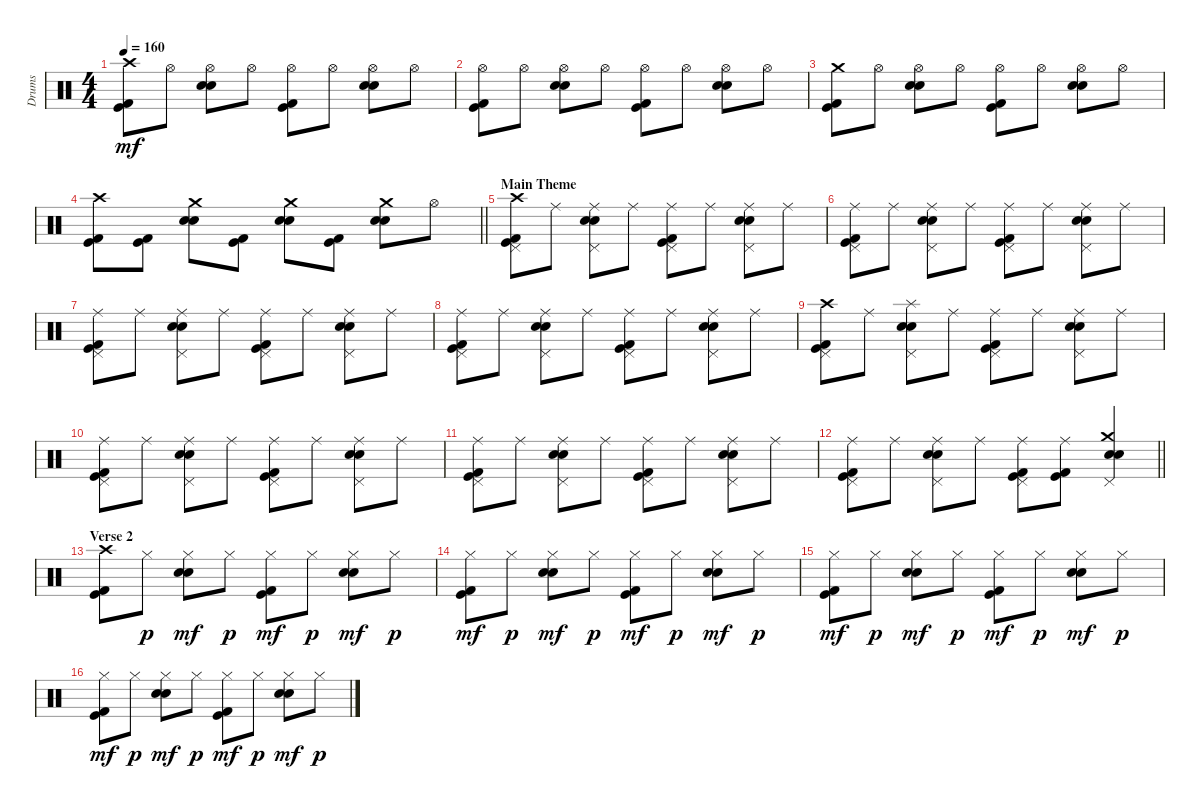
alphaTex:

\track ("Drums" "Drums") {instrument percussion}
\staff {score}
\articulation defaults
\ts (4 4)
\tempo 160
\clef neutral
\ks c
("Crash high (hit)" "Kick (hit) 2" "Kick (hit)").8{dy mf} "Hi-Hat (open)".8 ("Hi-Hat (open)" "Snare (hit) 2" "Electric Snare (hit)").8 "Hi-Hat (open)".8 ("Hi-Hat (open)" "Kick (hit) 2" "Kick (hit)").8 "Hi-Hat (open)".8 ("Hi-Hat (open)" "Snare (hit) 2" "Electric Snare (hit)").8 "Hi-Hat (open)".8 |
("Hi-Hat (open)" "Kick (hit) 2" "Kick (hit)").8 "Hi-Hat (open)".8 ("Hi-Hat (open)" "Snare (hit) 2" "Electric Snare (hit)").8 "Hi-Hat (open)".8 ("Hi-Hat (open)" "Kick (hit) 2" "Kick (hit)").8 "Hi-Hat (open)".8 ("Hi-Hat (open)" "Snare (hit) 2" "Electric Snare (hit)").8 "Hi-Hat (open)".8 |
("Crash medium (hit)" "Kick (hit) 2" "Kick (hit)").8 "Hi-Hat (open)".8 ("Hi-Hat (open)" "Snare (hit) 2" "Electric Snare (hit)").8 "Hi-Hat (open)".8 ("Hi-Hat (open)" "Kick (hit) 2" "Kick (hit)").8 "Hi-Hat (open)".8 ("Hi-Hat (open)" "Snare (hit) 2" "Electric Snare (hit)").8 "Hi-Hat (open)".8 |
\barLineRight lightlight
("Crash high (hit)" "Kick (hit) 2" "Kick (hit)").8 ("Kick (hit) 2" "Kick (hit)").8 ("Crash medium (hit)" "Snare (hit) 2" "Electric Snare (hit)").8 ("Kick (hit) 2" "Kick (hit)").8 ("Crash medium (hit)" "Snare (hit) 2" "Electric Snare (hit)").8 ("Kick (hit) 2" "Kick (hit)").8 ("Crash medium (hit)" "Snare (hit) 2" "Electric Snare (hit)").8 "Hi-Hat (open)".8 |
\section ("" "Main Theme")
("Crash high (hit)" "Pedal Hi-Hat (hit)" "Kick (hit) 2" "Kick (hit)").8 "Ride (middle)".8 ("Ride (middle)" "Pedal Hi-Hat (hit)" "Snare (hit) 2" "Electric Snare (hit)").8 "Ride (middle)".8 ("Ride (middle)" "Pedal Hi-Hat (hit)" "Kick (hit) 2" "Kick (hit)").8 "Ride (middle)".8 ("Ride (middle)" "Pedal Hi-Hat (hit)" "Snare (hit) 2" "Electric Snare (hit)").8 "Ride (middle)".8 |
("Ride (middle)" "Pedal Hi-Hat (hit)" "Kick (hit) 2" "Kick (hit)").8 "Ride (middle)".8 ("Ride (middle)" "Pedal Hi-Hat (hit)" "Snare (hit) 2" "Electric Snare (hit)").8 "Ride (middle)".8 ("Ride (middle)" "Pedal Hi-Hat (hit)" "Kick (hit) 2" "Kick (hit)").8 "Ride (middle)".8 ("Ride (middle)" "Pedal Hi-Hat (hit)" "Snare (hit) 2" "Electric Snare (hit)").8 "Ride (middle)".8 |
("Ride (middle)" "Pedal Hi-Hat (hit)" "Kick (hit) 2" "Kick (hit)").8 "Ride (middle)".8 ("Ride (middle)" "Pedal Hi-Hat (hit)" "Snare (hit) 2" "Electric Snare (hit)").8 "Ride (middle)".8 ("Ride (middle)" "Pedal Hi-Hat (hit)" "Kick (hit) 2" "Kick (hit)").8 "Ride (middle)".8 ("Ride (middle)" "Pedal Hi-Hat (hit)" "Snare (hit) 2" "Electric Snare (hit)").8 "Ride (middle)".8 |
("Ride (middle)" "Pedal Hi-Hat (hit)" "Kick (hit) 2" "Kick (hit)").8 "Ride (middle)".8 ("Ride (middle)" "Pedal Hi-Hat (hit)" "Snare (hit) 2" "Electric Snare (hit)").8 "Ride (middle)".8 ("Ride (middle)" "Pedal Hi-Hat (hit)" "Kick (hit) 2" "Kick (hit)").8 "Ride (middle)".8 ("Ride (middle)" "Pedal Hi-Hat (hit)" "Snare (hit) 2" "Electric Snare (hit)").8 "Ride (middle)".8 |
("Crash high (hit)" "Pedal Hi-Hat (hit)" "Kick (hit) 2" "Kick (hit)").8 "Ride (middle)".8 ("Splash (hit)" "Pedal Hi-Hat (hit)" "Snare (hit) 2" "Electric Snare (hit)").8 "Ride (middle)".8 ("Ride (middle)" "Pedal Hi-Hat (hit)" "Kick (hit) 2" "Kick (hit)").8 "Ride (middle)".8 ("Ride (middle)" "Pedal Hi-Hat (hit)" "Snare (hit) 2" "Electric Snare (hit)").8 "Ride (middle)".8 |
("Ride (middle)" "Pedal Hi-Hat (hit)" "Kick (hit) 2" "Kick (hit)").8 "Ride (middle)".8 ("Ride (middle)" "Pedal Hi-Hat (hit)" "Snare (hit) 2" "Electric Snare (hit)").8 "Ride (middle)".8 ("Ride (middle)" "Pedal Hi-Hat (hit)" "Kick (hit) 2" "Kick (hit)").8 "Ride (middle)".8 ("Ride (middle)" "Pedal Hi-Hat (hit)" "Snare (hit) 2" "Electric Snare (hit)").8 "Ride (middle)".8 |
("Ride (middle)" "Pedal Hi-Hat (hit)" "Kick (hit) 2" "Kick (hit)").8 "Ride (middle)".8 ("Ride (middle)" "Pedal Hi-Hat (hit)" "Snare (hit) 2" "Electric Snare (hit)").8 "Ride (middle)".8 ("Ride (middle)" "Pedal Hi-Hat (hit)" "Kick (hit) 2" "Kick (hit)").8 "Ride (middle)".8 ("Ride (middle)" "Pedal Hi-Hat (hit)" "Snare (hit) 2" "Electric Snare (hit)").8 "Ride (middle)".8 |
\barLineRight lightlight
("Ride (middle)" "Pedal Hi-Hat (hit)" "Kick (hit) 2" "Kick (hit)").8 "Ride (middle)".8 ("Ride (middle)" "Pedal Hi-Hat (hit)" "Snare (hit) 2" "Electric Snare (hit)").8 "Ride (middle)".8 ("Ride (middle)" "Pedal Hi-Hat (hit)" "Kick (hit) 2" "Kick (hit)").8 ("Ride (middle)" "Kick (hit) 2" "Kick (hit)").8 ("Crash medium (hit)" "Pedal Hi-Hat (hit)" "Snare (hit) 2" "Electric Snare (hit)").4 |
\section ("" "Verse 2")
("Crash high (hit)" "Kick (hit) 2" "Kick (hit)").8 "Hi-Hat (closed)".8{dy p} ("Hi-Hat (closed)" "Snare (hit) 2" "Electric Snare (hit)").8{dy mf} "Hi-Hat (closed)".8{dy p} ("Hi-Hat (closed)" "Kick (hit) 2" "Kick (hit)").8{dy mf} "Hi-Hat (closed)".8{dy p} ("Hi-Hat (closed)" "Snare (hit) 2" "Electric Snare (hit)").8{dy mf} "Hi-Hat (closed)".8{dy p} |
("Hi-Hat (closed)" "Kick (hit) 2" "Kick (hit)").8{dy mf} "Hi-Hat (closed)".8{dy p} ("Hi-Hat (closed)" "Snare (hit) 2" "Electric Snare (hit)").8{dy mf} "Hi-Hat (closed)".8{dy p} ("Hi-Hat (closed)" "Kick (hit) 2" "Kick (hit)").8{dy mf} "Hi-Hat (closed)".8{dy p} ("Hi-Hat (closed)" "Snare (hit) 2" "Electric Snare (hit)").8{dy mf} "Hi-Hat (closed)".8{dy p} |
("Hi-Hat (closed)" "Kick (hit) 2" "Kick (hit)").8{dy mf} "Hi-Hat (closed)".8{dy p} ("Hi-Hat (closed)" "Snare (hit) 2" "Electric Snare (hit)").8{dy mf} "Hi-Hat (closed)".8{dy p} ("Hi-Hat (closed)" "Kick (hit) 2" "Kick (hit)").8{dy mf} "Hi-Hat (closed)".8{dy p} ("Hi-Hat (closed)" "Snare (hit) 2" "Electric Snare (hit)").8{dy mf} "Hi-Hat (closed)".8{dy p} |
("Hi-Hat (closed)" "Kick (hit) 2" "Kick (hit)").8{dy mf} "Hi-Hat (closed)".8{dy p} ("Hi-Hat (closed)" "Snare (hit) 2" "Electric Snare (hit)").8{dy mf} "Hi-Hat (closed)".8{dy p} ("Hi-Hat (closed)" "Kick (hit) 2" "Kick (hit)").8{dy mf} "Hi-Hat (closed)".8{dy p} ("Hi-Hat (closed)" "Snare (hit) 2" "Electric Snare (hit)").8{dy mf} "Hi-Hat (closed)".8{dy p}
